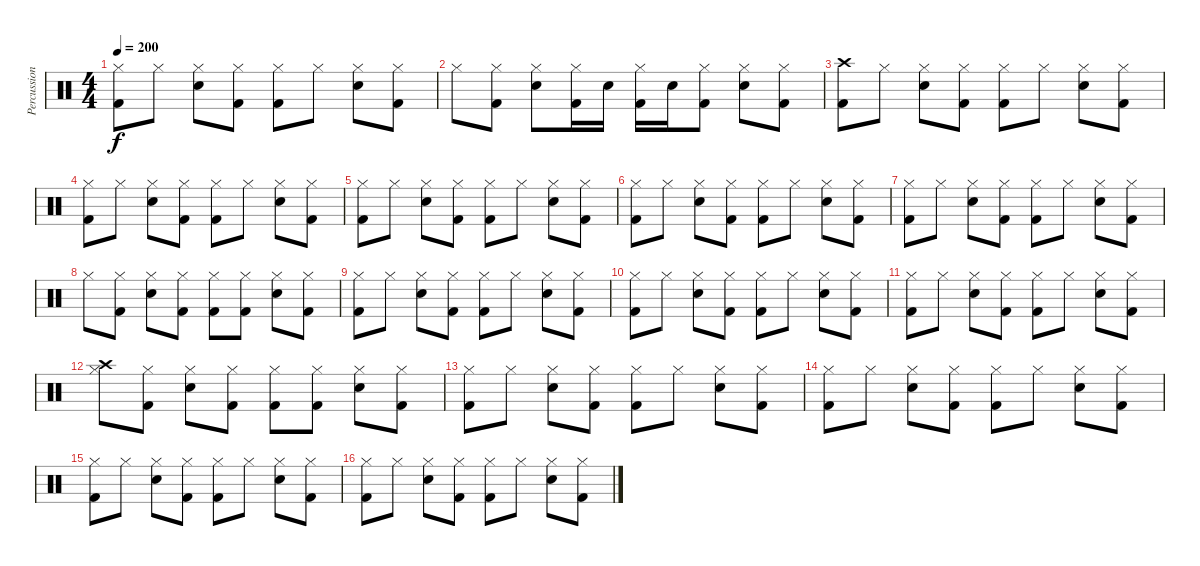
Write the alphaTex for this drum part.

\track ("Percussion" "Percussion") {instrument percussion}
\staff {score}
\articulation defaults
\ts (4 4)
\tempo 200
\clef neutral
\ks c
("Hi-Hat (closed)" "Kick (hit) 2").8{dy f} "Hi-Hat (closed)".8 ("Hi-Hat (closed)" "Snare (hit) 2").8 ("Hi-Hat (closed)" "Kick (hit) 2").8 ("Hi-Hat (closed)" "Kick (hit) 2").8 "Hi-Hat (closed)".8 ("Hi-Hat (closed)" "Snare (hit) 2").8 ("Hi-Hat (closed)" "Kick (hit) 2").8 |
"Hi-Hat (closed)".8 ("Hi-Hat (closed)" "Kick (hit) 2").8 ("Hi-Hat (closed)" "Snare (hit) 2").8 ("Hi-Hat (closed)" "Kick (hit) 2").16 "Snare (hit) 2".16 ("Hi-Hat (closed)" "Kick (hit) 2").16 "Snare (hit) 2".16 ("Hi-Hat (closed)" "Kick (hit) 2").8 ("Hi-Hat (closed)" "Snare (hit) 2").8 ("Hi-Hat (closed)" "Kick (hit) 2").8 |
("Crash high (hit)" "Kick (hit) 2").8 "Hi-Hat (closed)".8 ("Hi-Hat (closed)" "Snare (hit) 2").8 ("Hi-Hat (closed)" "Kick (hit) 2").8 ("Hi-Hat (closed)" "Kick (hit) 2").8 "Hi-Hat (closed)".8 ("Hi-Hat (closed)" "Snare (hit) 2").8 ("Hi-Hat (closed)" "Kick (hit) 2").8 |
("Hi-Hat (closed)" "Kick (hit) 2").8 "Hi-Hat (closed)".8 ("Hi-Hat (closed)" "Snare (hit) 2").8 ("Hi-Hat (closed)" "Kick (hit) 2").8 ("Hi-Hat (closed)" "Kick (hit) 2").8 "Hi-Hat (closed)".8 ("Hi-Hat (closed)" "Snare (hit) 2").8 ("Hi-Hat (closed)" "Kick (hit) 2").8 |
("Hi-Hat (closed)" "Kick (hit) 2").8 "Hi-Hat (closed)".8 ("Hi-Hat (closed)" "Snare (hit) 2").8 ("Hi-Hat (closed)" "Kick (hit) 2").8 ("Hi-Hat (closed)" "Kick (hit) 2").8 "Hi-Hat (closed)".8 ("Hi-Hat (closed)" "Snare (hit) 2").8 ("Hi-Hat (closed)" "Kick (hit) 2").8 |
("Hi-Hat (closed)" "Kick (hit) 2").8 "Hi-Hat (closed)".8 ("Hi-Hat (closed)" "Snare (hit) 2").8 ("Hi-Hat (closed)" "Kick (hit) 2").8 ("Hi-Hat (closed)" "Kick (hit) 2").8 "Hi-Hat (closed)".8 ("Hi-Hat (closed)" "Snare (hit) 2").8 ("Hi-Hat (closed)" "Kick (hit) 2").8 |
("Hi-Hat (closed)" "Kick (hit) 2").8 "Hi-Hat (closed)".8 ("Hi-Hat (closed)" "Snare (hit) 2").8 ("Hi-Hat (closed)" "Kick (hit) 2").8 ("Hi-Hat (closed)" "Kick (hit) 2").8 "Hi-Hat (closed)".8 ("Hi-Hat (closed)" "Snare (hit) 2").8 ("Hi-Hat (closed)" "Kick (hit) 2").8 |
"Hi-Hat (closed)".8 ("Hi-Hat (closed)" "Kick (hit) 2").8 ("Hi-Hat (closed)" "Snare (hit) 2").8 ("Hi-Hat (closed)" "Kick (hit) 2").8 ("Hi-Hat (closed)" "Kick (hit) 2").8 ("Hi-Hat (closed)" "Kick (hit) 2").8 ("Hi-Hat (closed)" "Snare (hit) 2").8 ("Hi-Hat (closed)" "Kick (hit) 2").8 |
("Hi-Hat (closed)" "Kick (hit) 2").8 "Hi-Hat (closed)".8 ("Hi-Hat (closed)" "Snare (hit) 2").8 ("Hi-Hat (closed)" "Kick (hit) 2").8 ("Hi-Hat (closed)" "Kick (hit) 2").8 "Hi-Hat (closed)".8 ("Hi-Hat (closed)" "Snare (hit) 2").8 ("Hi-Hat (closed)" "Kick (hit) 2").8 |
("Hi-Hat (closed)" "Kick (hit) 2").8 "Hi-Hat (closed)".8 ("Hi-Hat (closed)" "Snare (hit) 2").8 ("Hi-Hat (closed)" "Kick (hit) 2").8 ("Hi-Hat (closed)" "Kick (hit) 2").8 "Hi-Hat (closed)".8 ("Hi-Hat (closed)" "Snare (hit) 2").8 ("Hi-Hat (closed)" "Kick (hit) 2").8 |
("Hi-Hat (closed)" "Kick (hit) 2").8 "Hi-Hat (closed)".8 ("Hi-Hat (closed)" "Snare (hit) 2").8 ("Hi-Hat (closed)" "Kick (hit) 2").8 ("Hi-Hat (closed)" "Kick (hit) 2").8 "Hi-Hat (closed)".8 ("Hi-Hat (closed)" "Snare (hit) 2").8 ("Hi-Hat (closed)" "Kick (hit) 2").8 |
("Hi-Hat (closed)" "Crash high (hit)").8 ("Hi-Hat (closed)" "Kick (hit) 2").8 ("Hi-Hat (closed)" "Snare (hit) 2").8 ("Hi-Hat (closed)" "Kick (hit) 2").8 ("Hi-Hat (closed)" "Kick (hit) 2").8 ("Hi-Hat (closed)" "Kick (hit) 2").8 ("Hi-Hat (closed)" "Snare (hit) 2").8 ("Hi-Hat (closed)" "Kick (hit) 2").8 |
("Hi-Hat (closed)" "Kick (hit) 2").8 "Hi-Hat (closed)".8 ("Hi-Hat (closed)" "Snare (hit) 2").8 ("Hi-Hat (closed)" "Kick (hit) 2").8 ("Hi-Hat (closed)" "Kick (hit) 2").8 "Hi-Hat (closed)".8 ("Hi-Hat (closed)" "Snare (hit) 2").8 ("Hi-Hat (closed)" "Kick (hit) 2").8 |
("Hi-Hat (closed)" "Kick (hit) 2").8 "Hi-Hat (closed)".8 ("Hi-Hat (closed)" "Snare (hit) 2").8 ("Hi-Hat (closed)" "Kick (hit) 2").8 ("Hi-Hat (closed)" "Kick (hit) 2").8 "Hi-Hat (closed)".8 ("Hi-Hat (closed)" "Snare (hit) 2").8 ("Hi-Hat (closed)" "Kick (hit) 2").8 |
("Hi-Hat (closed)" "Kick (hit) 2").8 "Hi-Hat (closed)".8 ("Hi-Hat (closed)" "Snare (hit) 2").8 ("Hi-Hat (closed)" "Kick (hit) 2").8 ("Hi-Hat (closed)" "Kick (hit) 2").8 "Hi-Hat (closed)".8 ("Hi-Hat (closed)" "Snare (hit) 2").8 ("Hi-Hat (closed)" "Kick (hit) 2").8 |
("Hi-Hat (closed)" "Kick (hit) 2").8 "Hi-Hat (closed)".8 ("Hi-Hat (closed)" "Snare (hit) 2").8 ("Hi-Hat (closed)" "Kick (hit) 2").8 ("Hi-Hat (closed)" "Kick (hit) 2").8 "Hi-Hat (closed)".8 ("Hi-Hat (closed)" "Snare (hit) 2").8 ("Hi-Hat (closed)" "Kick (hit) 2").8
